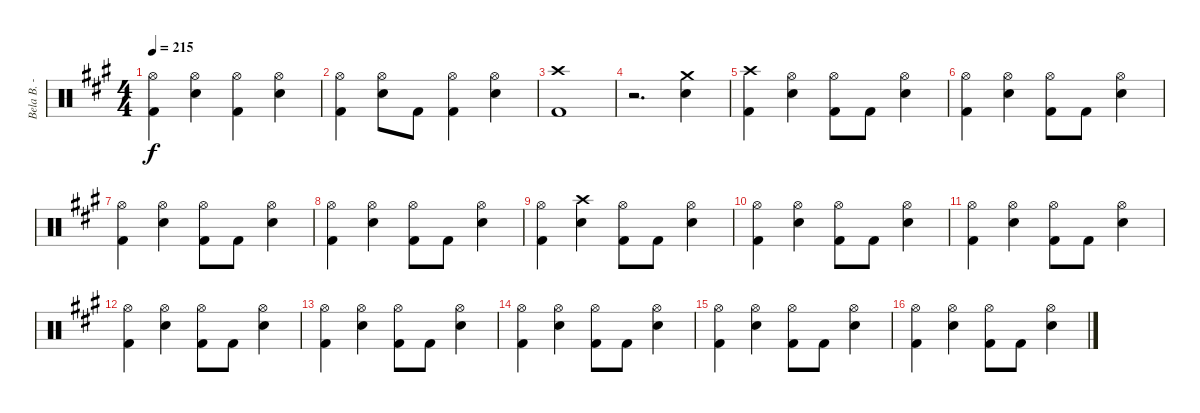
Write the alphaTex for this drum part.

\track ("Bela B. - Schlagzeug" "Bela B. - ") {instrument percussion}
\staff {score}
\articulation defaults
\ts (4 4)
\tempo 215
\clef neutral
\ks a
("Hi-Hat (open)" "Kick (hit) 2").4{dy f} ("Hi-Hat (open)" "Snare (hit) 2").4 ("Hi-Hat (open)" "Kick (hit) 2").4 ("Hi-Hat (open)" "Snare (hit) 2").4 |
("Hi-Hat (open)" "Kick (hit) 2").4 ("Hi-Hat (open)" "Snare (hit) 2").8 "Kick (hit) 2".8 ("Hi-Hat (open)" "Kick (hit) 2").4 ("Hi-Hat (open)" "Snare (hit) 2").4 |
("Crash high (hit)" "Kick (hit) 2").1 |
r.2{d} ("Crash medium (hit)" "Snare (hit) 2").4 |
("Crash high (hit)" "Kick (hit) 2").4 ("Hi-Hat (open)" "Snare (hit) 2").4 ("Hi-Hat (open)" "Kick (hit) 2").8 "Kick (hit) 2".8 ("Hi-Hat (open)" "Snare (hit) 2").4 |
("Hi-Hat (open)" "Kick (hit) 2").4 ("Hi-Hat (open)" "Snare (hit) 2").4 ("Hi-Hat (open)" "Kick (hit) 2").8 "Kick (hit) 2".8 ("Hi-Hat (open)" "Snare (hit) 2").4 |
("Hi-Hat (open)" "Kick (hit) 2").4 ("Hi-Hat (open)" "Snare (hit) 2").4 ("Hi-Hat (open)" "Kick (hit) 2").8 "Kick (hit) 2".8 ("Hi-Hat (open)" "Snare (hit) 2").4 |
("Hi-Hat (open)" "Kick (hit) 2").4 ("Hi-Hat (open)" "Snare (hit) 2").4 ("Hi-Hat (open)" "Kick (hit) 2").8 "Kick (hit) 2".8 ("Hi-Hat (open)" "Snare (hit) 2").4 |
("Hi-Hat (open)" "Kick (hit) 2").4 ("Crash high (hit)" "Snare (hit) 2").4 ("Hi-Hat (open)" "Kick (hit) 2").8 "Kick (hit) 2".8 ("Hi-Hat (open)" "Snare (hit) 2").4 |
("Hi-Hat (open)" "Kick (hit) 2").4 ("Hi-Hat (open)" "Snare (hit) 2").4 ("Hi-Hat (open)" "Kick (hit) 2").8 "Kick (hit) 2".8 ("Hi-Hat (open)" "Snare (hit) 2").4 |
("Hi-Hat (open)" "Kick (hit) 2").4 ("Hi-Hat (open)" "Snare (hit) 2").4 ("Hi-Hat (open)" "Kick (hit) 2").8 "Kick (hit) 2".8 ("Hi-Hat (open)" "Snare (hit) 2").4 |
("Hi-Hat (open)" "Kick (hit) 2").4 ("Hi-Hat (open)" "Snare (hit) 2").4 ("Hi-Hat (open)" "Kick (hit) 2").8 "Kick (hit) 2".8 ("Hi-Hat (open)" "Snare (hit) 2").4 |
("Hi-Hat (open)" "Kick (hit) 2").4 ("Hi-Hat (open)" "Snare (hit) 2").4 ("Hi-Hat (open)" "Kick (hit) 2").8 "Kick (hit) 2".8 ("Hi-Hat (open)" "Snare (hit) 2").4 |
("Hi-Hat (open)" "Kick (hit) 2").4 ("Hi-Hat (open)" "Snare (hit) 2").4 ("Hi-Hat (open)" "Kick (hit) 2").8 "Kick (hit) 2".8 ("Hi-Hat (open)" "Snare (hit) 2").4 |
("Hi-Hat (open)" "Kick (hit) 2").4 ("Hi-Hat (open)" "Snare (hit) 2").4 ("Hi-Hat (open)" "Kick (hit) 2").8 "Kick (hit) 2".8 ("Hi-Hat (open)" "Snare (hit) 2").4 |
("Hi-Hat (open)" "Kick (hit) 2").4 ("Hi-Hat (open)" "Snare (hit) 2").4 ("Hi-Hat (open)" "Kick (hit) 2").8 "Kick (hit) 2".8 ("Hi-Hat (open)" "Snare (hit) 2").4
